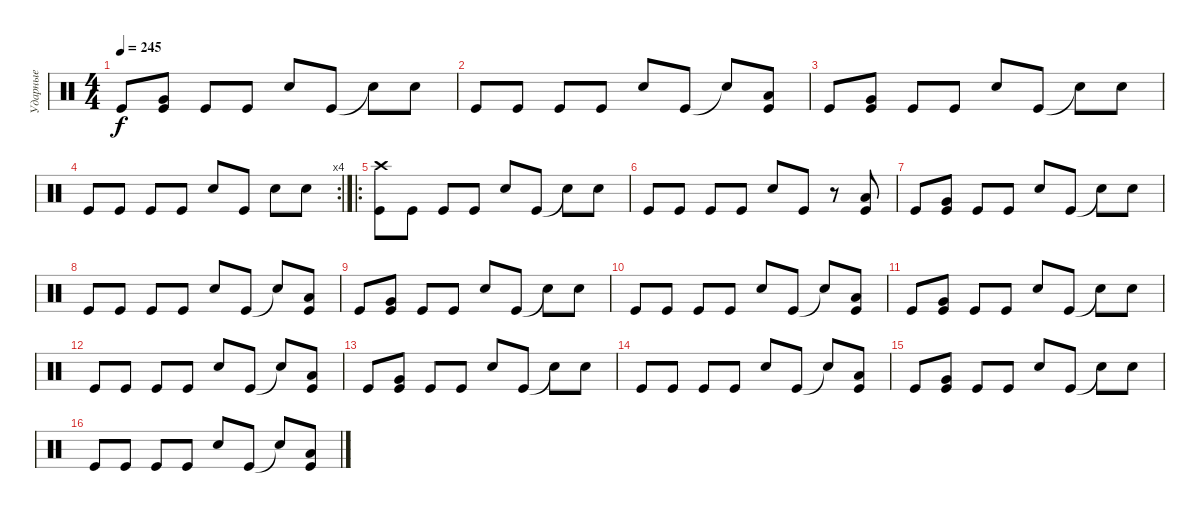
\track ("Ударные" "Ударные") {instrument percussion}
\staff {score}
\articulation defaults
\ts (4 4)
\tempo 245
\clef neutral
\ks c "Kick (hit)".8{dy f}
("Kick (hit)" "Very Low Tom (hit)").8 "Kick (hit)".8 "Kick (hit)".8 "Electric Snare (hit)".8 "Kick (hit)".8 "Snare (hit)"{t}.8 "Electric Snare (hit)".8 |
"Kick (hit)".8 "Kick (hit)".8 "Kick (hit)".8 "Kick (hit)".8 "Electric Snare (hit)".8 "Kick (hit)".8 "Snare (hit)"{t}.8 ("Kick (hit)" "Low Tom (hit)").8 |
"Kick (hit)".8 ("Kick (hit)" "Very Low Tom (hit)").8 "Kick (hit)".8 "Kick (hit)".8 "Electric Snare (hit)".8 "Kick (hit)".8 "Snare (hit)"{t}.8 "Electric Snare (hit)".8 |
\rc 4 "Kick (hit)".8 "Kick (hit)".8 "Kick (hit)".8 "Kick (hit)".8 "Electric Snare (hit)".8 "Kick (hit)".8 "Electric Snare (hit)".8 "Electric Snare (hit)".8
|
\ro
("Kick (hit)" "Crash high (hit)").8 "Kick (hit)".8 "Kick (hit)".8 "Kick (hit)".8 "Electric Snare (hit)".8 "Kick (hit)".8 "Snare (hit)"{t}.8 "Electric Snare (hit)".8 |
"Kick (hit)".8 "Kick (hit)".8 "Kick (hit)".8 "Kick (hit)".8 "Electric Snare (hit)".8 "Kick (hit)".8 r.8 ("Kick (hit)" "Low Tom (hit)").8 |
"Kick (hit)".8 ("Kick (hit)" "Very Low Tom (hit)").8 "Kick (hit)".8 "Kick (hit)".8 "Electric Snare (hit)".8 "Kick (hit)".8 "Snare (hit)"{t}.8 "Electric Snare (hit)".8 |
"Kick (hit)".8 "Kick (hit)".8 "Kick (hit)".8 "Kick (hit)".8 "Electric Snare (hit)".8 "Kick (hit)".8 "Snare (hit)"{t}.8 ("Kick (hit)" "Low Tom (hit)").8 |
"Kick (hit)".8 ("Kick (hit)" "Very Low Tom (hit)").8 "Kick (hit)".8 "Kick (hit)".8 "Electric Snare (hit)".8 "Kick (hit)".8 "Snare (hit)"{t}.8 "Electric Snare (hit)".8 |
"Kick (hit)".8 "Kick (hit)".8 "Kick (hit)".8 "Kick (hit)".8 "Electric Snare (hit)".8 "Kick (hit)".8 "Snare (hit)"{t}.8 ("Kick (hit)" "Low Tom (hit)").8 |
"Kick (hit)".8 ("Kick (hit)" "Very Low Tom (hit)").8 "Kick (hit)".8 "Kick (hit)".8 "Electric Snare (hit)".8 "Kick (hit)".8 "Snare (hit)"{t}.8 "Electric Snare (hit)".8 |
"Kick (hit)".8 "Kick (hit)".8 "Kick (hit)".8 "Kick (hit)".8 "Electric Snare (hit)".8 "Kick (hit)".8 "Snare (hit)"{t}.8 ("Kick (hit)" "Low Tom (hit)").8 |
"Kick (hit)".8 ("Kick (hit)" "Very Low Tom (hit)").8 "Kick (hit)".8 "Kick (hit)".8 "Electric Snare (hit)".8 "Kick (hit)".8 "Snare (hit)"{t}.8 "Electric Snare (hit)".8 |
"Kick (hit)".8 "Kick (hit)".8 "Kick (hit)".8 "Kick (hit)".8 "Electric Snare (hit)".8 "Kick (hit)".8 "Snare (hit)"{t}.8 ("Kick (hit)" "Low Tom (hit)").8 |
"Kick (hit)".8 ("Kick (hit)" "Very Low Tom (hit)").8 "Kick (hit)".8 "Kick (hit)".8 "Electric Snare (hit)".8 "Kick (hit)".8 "Snare (hit)"{t}.8 "Electric Snare (hit)".8 |
"Kick (hit)".8 "Kick (hit)".8 "Kick (hit)".8 "Kick (hit)".8 "Electric Snare (hit)".8 "Kick (hit)".8 "Snare (hit)"{t}.8 ("Kick (hit)" "Low Tom (hit)").8
